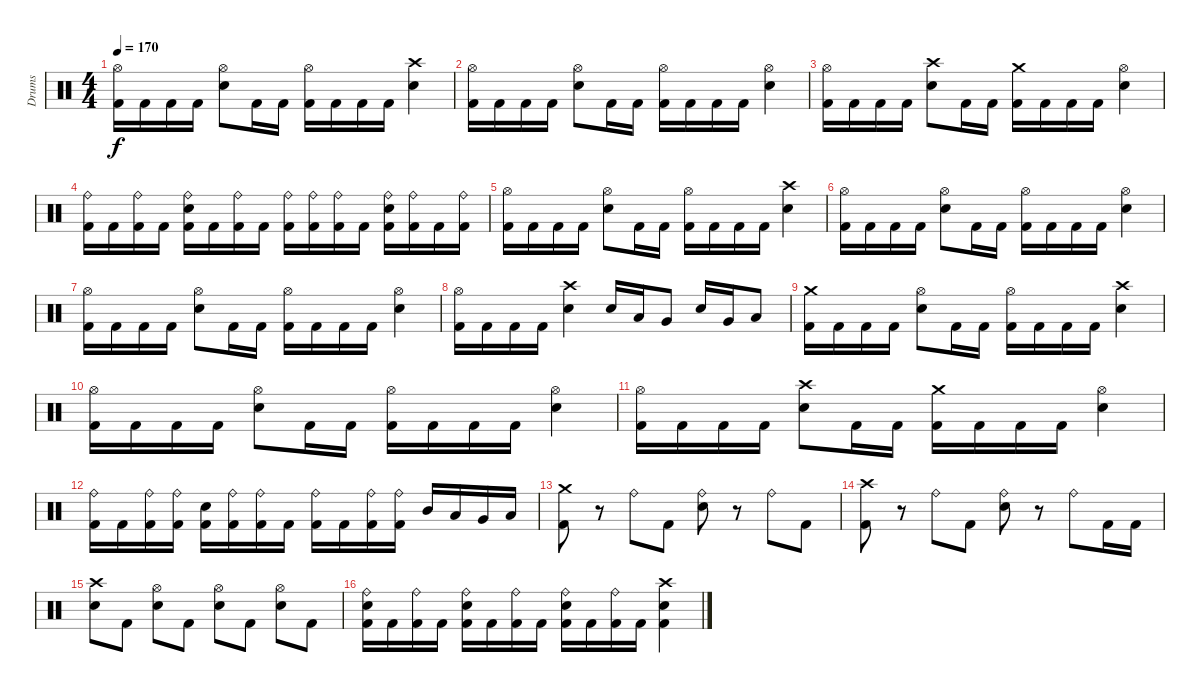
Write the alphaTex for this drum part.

\track ("Drums" "Drums") {instrument percussion}
\staff {score}
\articulation defaults
\ts (4 4)
\tempo 170
\clef neutral
\ks c
("Kick (hit) 2" "Hi-Hat (open)").16{dy f} "Kick (hit) 2".16 "Kick (hit) 2".16 "Kick (hit) 2".16 ("Snare (hit) 2" "Hi-Hat (open)").8 "Kick (hit) 2".16 "Kick (hit) 2".16 ("Kick (hit) 2" "Hi-Hat (open)").16 "Kick (hit) 2".16 "Kick (hit) 2".16 "Kick (hit) 2".16 ("Snare (hit) 2" "Crash high (hit)").4 |
("Kick (hit) 2" "Hi-Hat (open)").16 "Kick (hit) 2".16 "Kick (hit) 2".16 "Kick (hit) 2".16 ("Snare (hit) 2" "Hi-Hat (open)").8 "Kick (hit) 2".16 "Kick (hit) 2".16 ("Kick (hit) 2" "Hi-Hat (open)").16 "Kick (hit) 2".16 "Kick (hit) 2".16 "Kick (hit) 2".16 ("Snare (hit) 2" "Hi-Hat (open)").4 |
("Kick (hit) 2" "Hi-Hat (open)").16 "Kick (hit) 2".16 "Kick (hit) 2".16 "Kick (hit) 2".16 ("Snare (hit) 2" "Crash high (hit)").8 "Kick (hit) 2".16 "Kick (hit) 2".16 ("Kick (hit) 2" "Crash medium (hit)").16 "Kick (hit) 2".16 "Kick (hit) 2".16 "Kick (hit) 2".16 ("Snare (hit) 2" "Hi-Hat (open)").4 |
("Kick (hit) 2" "Ride (bell)").16 "Kick (hit) 2".16 ("Kick (hit) 2" "Ride (bell)").16 "Kick (hit) 2".16 ("Kick (hit) 2" "Ride (bell)" "Snare (hit) 2").16 "Kick (hit) 2".16 ("Kick (hit) 2" "Ride (bell)").16 "Kick (hit) 2".16 ("Kick (hit) 2" "Ride (bell)").16 ("Kick (hit) 2" "Ride (bell)").16 ("Kick (hit) 2" "Ride (bell)").16 "Kick (hit) 2".16 ("Kick (hit) 2" "Ride (bell)" "Snare (hit) 2").16 ("Kick (hit) 2" "Ride (bell)").16 "Kick (hit) 2".16 ("Kick (hit) 2" "Ride (bell)").16 |
("Kick (hit) 2" "Hi-Hat (open)").16 "Kick (hit) 2".16 "Kick (hit) 2".16 "Kick (hit) 2".16 ("Snare (hit) 2" "Hi-Hat (open)").8 "Kick (hit) 2".16 "Kick (hit) 2".16 ("Kick (hit) 2" "Hi-Hat (open)").16 "Kick (hit) 2".16 "Kick (hit) 2".16 "Kick (hit) 2".16 ("Snare (hit) 2" "Crash high (hit)").4 |
("Kick (hit) 2" "Hi-Hat (open)").16 "Kick (hit) 2".16 "Kick (hit) 2".16 "Kick (hit) 2".16 ("Snare (hit) 2" "Hi-Hat (open)").8 "Kick (hit) 2".16 "Kick (hit) 2".16 ("Kick (hit) 2" "Hi-Hat (open)").16 "Kick (hit) 2".16 "Kick (hit) 2".16 "Kick (hit) 2".16 ("Snare (hit) 2" "Hi-Hat (open)").4 |
("Kick (hit) 2" "Hi-Hat (open)").16 "Kick (hit) 2".16 "Kick (hit) 2".16 "Kick (hit) 2".16 ("Snare (hit) 2" "Hi-Hat (open)").8 "Kick (hit) 2".16 "Kick (hit) 2".16 ("Kick (hit) 2" "Hi-Hat (open)").16 "Kick (hit) 2".16 "Kick (hit) 2".16 "Kick (hit) 2".16 ("Snare (hit) 2" "Hi-Hat (open)").4 |
("Kick (hit) 2" "Hi-Hat (open)").16 "Kick (hit) 2".16 "Kick (hit) 2".16 "Kick (hit) 2".16 ("Snare (hit) 2" "Crash high (hit)").4 "Snare (hit) 2".16 "Low Tom (hit)".16 "Very Low Tom (hit)".8 "Snare (hit) 2".16 "Very Low Tom (hit)".16 "Low Floor Tom (hit)".8 |
("Kick (hit) 2" "Crash medium (hit)").16 "Kick (hit) 2".16 "Kick (hit) 2".16 "Kick (hit) 2".16 ("Snare (hit) 2" "Hi-Hat (open)").8 "Kick (hit) 2".16 "Kick (hit) 2".16 ("Kick (hit) 2" "Hi-Hat (open)").16 "Kick (hit) 2".16 "Kick (hit) 2".16 "Kick (hit) 2".16 ("Snare (hit) 2" "Crash high (hit)").4 |
("Kick (hit) 2" "Hi-Hat (open)").16 "Kick (hit) 2".16 "Kick (hit) 2".16 "Kick (hit) 2".16 ("Snare (hit) 2" "Hi-Hat (open)").8 "Kick (hit) 2".16 "Kick (hit) 2".16 ("Kick (hit) 2" "Hi-Hat (open)").16 "Kick (hit) 2".16 "Kick (hit) 2".16 "Kick (hit) 2".16 ("Snare (hit) 2" "Hi-Hat (open)").4 |
("Kick (hit) 2" "Hi-Hat (open)").16 "Kick (hit) 2".16 "Kick (hit) 2".16 "Kick (hit) 2".16 ("Snare (hit) 2" "Crash high (hit)").8 "Kick (hit) 2".16 "Kick (hit) 2".16 ("Kick (hit) 2" "Crash medium (hit)").16 "Kick (hit) 2".16 "Kick (hit) 2".16 "Kick (hit) 2".16 ("Snare (hit) 2" "Hi-Hat (open)").4 |
("Kick (hit) 2" "Ride (bell)").16 "Kick (hit) 2".16 ("Kick (hit) 2" "Ride (bell)").16 ("Kick (hit) 2" "Ride (bell)").16 ("Kick (hit) 2" "Snare (hit) 2").16 ("Kick (hit) 2" "Ride (bell)").16 ("Kick (hit) 2" "Ride (bell)").16 "Kick (hit) 2".16 ("Kick (hit) 2" "Ride (bell)").16 "Kick (hit) 2".16 ("Kick (hit) 2" "Ride (bell)").16 ("Kick (hit) 2" "Ride (bell)").16 "Mid Tom (hit)".16 "Low Tom (hit)".16 "Very Low Tom (hit)".16 "Low Floor Tom (hit)".16 |
("Kick (hit) 2" "Crash medium (hit)").8 r.8 "Ride (bell)".8 "Kick (hit) 2".8 ("Snare (hit) 2" "Ride (bell)").8 r.8 "Ride (bell)".8 "Kick (hit) 2".8 |
("Kick (hit) 2" "Crash high (hit)").8 r.8 "Ride (bell)".8 "Kick (hit) 2".8 ("Snare (hit) 2" "Ride (bell)").8 r.8 "Ride (bell)".8 "Kick (hit) 2".16 "Kick (hit) 2".16 |
("Snare (hit) 2" "Crash high (hit)").8 "Kick (hit) 2".8 ("Snare (hit) 2" "Hi-Hat (open)").8 "Kick (hit) 2".8 ("Snare (hit) 2" "Hi-Hat (open)").8 "Kick (hit) 2".8 ("Snare (hit) 2" "Hi-Hat (open)").8 "Kick (hit) 2".8 |
("Kick (hit) 2" "Snare (hit) 2" "Ride (bell)").16 "Kick (hit) 2".16 ("Kick (hit) 2" "Ride (bell)").16 "Kick (hit) 2".16 ("Kick (hit) 2" "Snare (hit) 2" "Ride (bell)").16 "Kick (hit) 2".16 ("Kick (hit) 2" "Ride (bell)").16 "Kick (hit) 2".16 ("Kick (hit) 2" "Snare (hit) 2" "Ride (bell)").16 "Kick (hit) 2".16 ("Kick (hit) 2" "Ride (bell)").16 "Kick (hit) 2".16 ("Kick (hit) 2" "Snare (hit) 2" "Crash high (hit)").4
